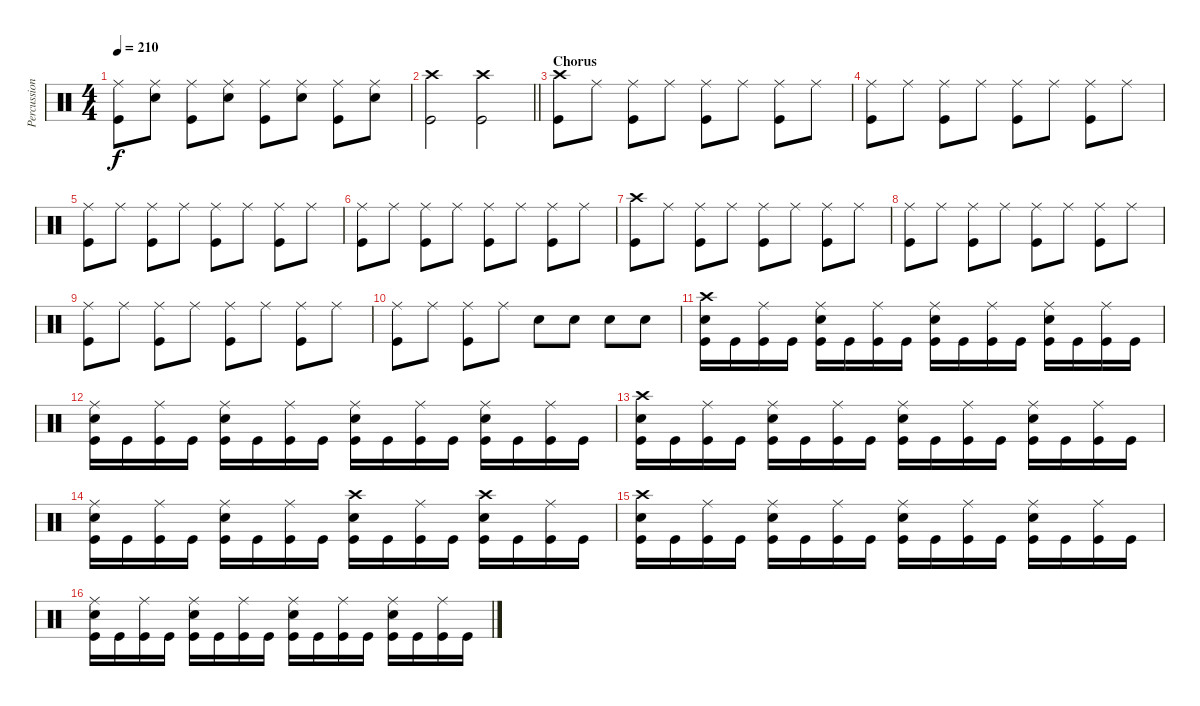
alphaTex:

\track ("Percussion" "Percussion") {instrument percussion}
\staff {score}
\articulation defaults
\ts (4 4)
\tempo 210
\clef neutral
\ks c
("Ride (middle)" "Kick (hit)").8{dy f} ("Ride (middle)" "Snare (hit) 2").8 ("Ride (middle)" "Kick (hit)").8 ("Ride (middle)" "Snare (hit) 2").8 ("Ride (middle)" "Kick (hit)").8 ("Ride (middle)" "Snare (hit) 2").8 ("Ride (middle)" "Kick (hit)").8 ("Ride (middle)" "Snare (hit) 2").8 |
\barLineRight lightlight
("Crash high (hit)" "Kick (hit)").2 ("Crash high (hit)" "Kick (hit)").2 |
\section ("" "Chorus")
("Crash high (hit)" "Kick (hit)").8 "Ride (middle)".8 ("Ride (middle)" "Kick (hit)").8 "Ride (middle)".8 ("Ride (middle)" "Kick (hit)").8 "Ride (middle)".8 ("Ride (middle)" "Kick (hit)").8 "Ride (middle)".8 |
("Ride (middle)" "Kick (hit)").8 "Ride (middle)".8 ("Ride (middle)" "Kick (hit)").8 "Ride (middle)".8 ("Ride (middle)" "Kick (hit)").8 "Ride (middle)".8 ("Ride (middle)" "Kick (hit)").8 "Ride (middle)".8 |
("Ride (middle)" "Kick (hit)").8 "Ride (middle)".8 ("Ride (middle)" "Kick (hit)").8 "Ride (middle)".8 ("Ride (middle)" "Kick (hit)").8 "Ride (middle)".8 ("Ride (middle)" "Kick (hit)").8 "Ride (middle)".8 |
("Ride (middle)" "Kick (hit)").8 "Ride (middle)".8 ("Ride (middle)" "Kick (hit)").8 "Ride (middle)".8 ("Ride (middle)" "Kick (hit)").8 "Ride (middle)".8 ("Ride (middle)" "Kick (hit)").8 "Ride (middle)".8 |
("Crash high (hit)" "Kick (hit)").8 "Ride (middle)".8 ("Ride (middle)" "Kick (hit)").8 "Ride (middle)".8 ("Ride (middle)" "Kick (hit)").8 "Ride (middle)".8 ("Ride (middle)" "Kick (hit)").8 "Ride (middle)".8 |
("Ride (middle)" "Kick (hit)").8 "Ride (middle)".8 ("Ride (middle)" "Kick (hit)").8 "Ride (middle)".8 ("Ride (middle)" "Kick (hit)").8 "Ride (middle)".8 ("Ride (middle)" "Kick (hit)").8 "Ride (middle)".8 |
("Ride (middle)" "Kick (hit)").8 "Ride (middle)".8 ("Ride (middle)" "Kick (hit)").8 "Ride (middle)".8 ("Ride (middle)" "Kick (hit)").8 "Ride (middle)".8 ("Ride (middle)" "Kick (hit)").8 "Ride (middle)".8 |
("Ride (middle)" "Kick (hit)").8 "Ride (middle)".8 ("Ride (middle)" "Kick (hit)").8 "Ride (middle)".8 "Snare (hit) 2".8 "Snare (hit) 2".8 "Snare (hit) 2".8 "Snare (hit) 2".8 |
("Crash high (hit)" "Snare (hit) 2" "Kick (hit)").16 "Kick (hit)".16 ("Ride (middle)" "Kick (hit)").16 "Kick (hit)".16 ("Ride (middle)" "Snare (hit) 2" "Kick (hit)").16 "Kick (hit)".16 ("Ride (middle)" "Kick (hit)").16 "Kick (hit)".16 ("Ride (middle)" "Snare (hit) 2" "Kick (hit)").16 "Kick (hit)".16 ("Ride (middle)" "Kick (hit)").16 "Kick (hit)".16 ("Ride (middle)" "Snare (hit) 2" "Kick (hit)").16 "Kick (hit)".16 ("Ride (middle)" "Kick (hit)").16 "Kick (hit)".16 |
("Ride (middle)" "Snare (hit) 2" "Kick (hit)").16 "Kick (hit)".16 ("Ride (middle)" "Kick (hit)").16 "Kick (hit)".16 ("Ride (middle)" "Snare (hit) 2" "Kick (hit)").16 "Kick (hit)".16 ("Ride (middle)" "Kick (hit)").16 "Kick (hit)".16 ("Ride (middle)" "Snare (hit) 2" "Kick (hit)").16 "Kick (hit)".16 ("Ride (middle)" "Kick (hit)").16 "Kick (hit)".16 ("Ride (middle)" "Snare (hit) 2" "Kick (hit)").16 "Kick (hit)".16 ("Ride (middle)" "Kick (hit)").16 "Kick (hit)".16 |
("Crash high (hit)" "Snare (hit) 2" "Kick (hit)").16 "Kick (hit)".16 ("Ride (middle)" "Kick (hit)").16 "Kick (hit)".16 ("Ride (middle)" "Snare (hit) 2" "Kick (hit)").16 "Kick (hit)".16 ("Ride (middle)" "Kick (hit)").16 "Kick (hit)".16 ("Ride (middle)" "Snare (hit) 2" "Kick (hit)").16 "Kick (hit)".16 ("Ride (middle)" "Kick (hit)").16 "Kick (hit)".16 ("Ride (middle)" "Snare (hit) 2" "Kick (hit)").16 "Kick (hit)".16 ("Ride (middle)" "Kick (hit)").16 "Kick (hit)".16 |
("Ride (middle)" "Snare (hit) 2" "Kick (hit)").16 "Kick (hit)".16 ("Ride (middle)" "Kick (hit)").16 "Kick (hit)".16 ("Ride (middle)" "Snare (hit) 2" "Kick (hit)").16 "Kick (hit)".16 ("Ride (middle)" "Kick (hit)").16 "Kick (hit)".16 ("Crash high (hit)" "Snare (hit) 2" "Kick (hit)").16 "Kick (hit)".16 ("Ride (middle)" "Kick (hit)").16 "Kick (hit)".16 ("Crash high (hit)" "Snare (hit) 2" "Kick (hit)").16 "Kick (hit)".16 ("Ride (middle)" "Kick (hit)").16 "Kick (hit)".16 |
("Crash high (hit)" "Snare (hit) 2" "Kick (hit)").16 "Kick (hit)".16 ("Ride (middle)" "Kick (hit)").16 "Kick (hit)".16 ("Ride (middle)" "Snare (hit) 2" "Kick (hit)").16 "Kick (hit)".16 ("Ride (middle)" "Kick (hit)").16 "Kick (hit)".16 ("Ride (middle)" "Snare (hit) 2" "Kick (hit)").16 "Kick (hit)".16 ("Ride (middle)" "Kick (hit)").16 "Kick (hit)".16 ("Ride (middle)" "Snare (hit) 2" "Kick (hit)").16 "Kick (hit)".16 ("Ride (middle)" "Kick (hit)").16 "Kick (hit)".16 |
("Ride (middle)" "Snare (hit) 2" "Kick (hit)").16 "Kick (hit)".16 ("Ride (middle)" "Kick (hit)").16 "Kick (hit)".16 ("Ride (middle)" "Snare (hit) 2" "Kick (hit)").16 "Kick (hit)".16 ("Ride (middle)" "Kick (hit)").16 "Kick (hit)".16 ("Ride (middle)" "Snare (hit) 2" "Kick (hit)").16 "Kick (hit)".16 ("Ride (middle)" "Kick (hit)").16 "Kick (hit)".16 ("Ride (middle)" "Snare (hit) 2" "Kick (hit)").16 "Kick (hit)".16 ("Ride (middle)" "Kick (hit)").16 "Kick (hit)".16
